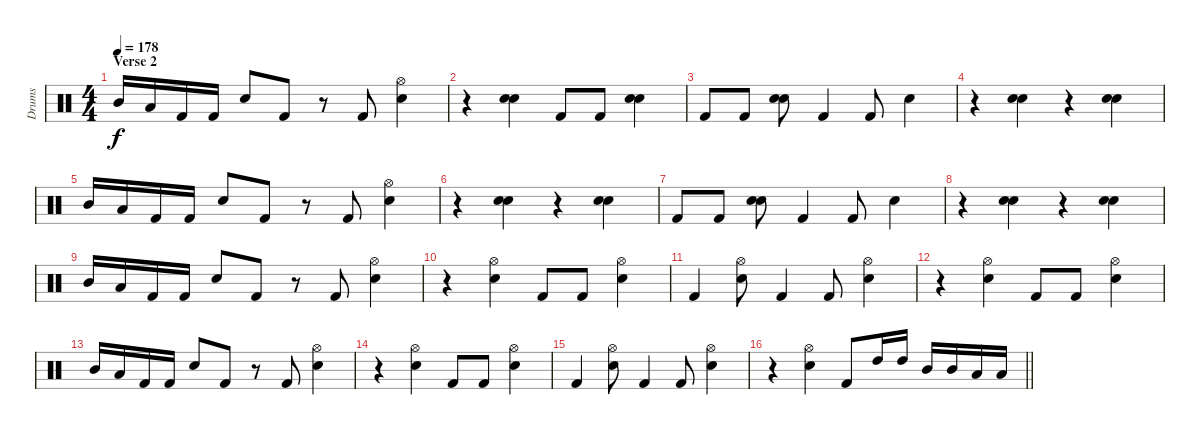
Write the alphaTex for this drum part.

\track ("Drums" "Drums") {instrument percussion}
\staff {score}
\articulation defaults
\ts (4 4)
\section ("" "Verse 2")
\tempo 178
\clef neutral
\ks c "Mid Tom (hit)".16{dy f} "Low Tom (hit)".16 "Kick (hit) 2".16 "Kick (hit) 2".16 "Electric Snare (hit)".8 "Kick (hit) 2".8
r.8 "Kick (hit) 2".8 ("Hi-Hat (open)" "Electric Snare (hit)").4 |
r.4 ("Electric Snare (hit)" "Electric Snare (hit)").4{bd 120} "Kick (hit) 2".8 "Kick (hit) 2".8 ("Electric Snare (hit)" "Electric Snare (hit)").4{bd 120} |
"Kick (hit) 2".8 "Kick (hit) 2".8 ("Electric Snare (hit)" "Electric Snare (hit)").8{bd 120} "Kick (hit) 2".4 "Kick (hit) 2".8 "Electric Snare (hit)".4 |
r.4 ("Electric Snare (hit)" "Electric Snare (hit)").4{bd 120} r.4 ("Electric Snare (hit)" "Electric Snare (hit)").4{bd 120} |
"Mid Tom (hit)".16 "Low Tom (hit)".16 "Kick (hit) 2".16 "Kick (hit) 2".16 "Electric Snare (hit)".8 "Kick (hit) 2".8 r.8 "Kick (hit) 2".8 ("Hi-Hat (open)" "Electric Snare (hit)").4 |
r.4 ("Electric Snare (hit)" "Electric Snare (hit)").4{bd 120} r.4 ("Electric Snare (hit)" "Electric Snare (hit)").4{bd 120} |
"Kick (hit) 2".8 "Kick (hit) 2".8 ("Electric Snare (hit)" "Electric Snare (hit)").8{bd 120} "Kick (hit) 2".4 "Kick (hit) 2".8 "Electric Snare (hit)".4 |
r.4 ("Electric Snare (hit)" "Electric Snare (hit)").4{bd 120} r.4 ("Electric Snare (hit)" "Electric Snare (hit)").4{bd 120} |
"Mid Tom (hit)".16 "Low Tom (hit)".16 "Kick (hit) 2".16 "Kick (hit) 2".16 "Electric Snare (hit)".8 "Kick (hit) 2".8 r.8 "Kick (hit) 2".8 ("Hi-Hat (open)" "Electric Snare (hit)").4 |
r.4 ("Hi-Hat (open)" "Electric Snare (hit)").4 "Kick (hit) 2".8 "Kick (hit) 2".8 ("Hi-Hat (open)" "Electric Snare (hit)").4 |
"Kick (hit) 2".4 ("Hi-Hat (open)" "Electric Snare (hit)").8 "Kick (hit) 2".4 "Kick (hit) 2".8 ("Hi-Hat (open)" "Electric Snare (hit)").4 |
r.4 ("Hi-Hat (open)" "Electric Snare (hit)").4 "Kick (hit) 2".8 "Kick (hit) 2".8 ("Hi-Hat (open)" "Electric Snare (hit)").4 |
"Mid Tom (hit)".16 "Low Tom (hit)".16 "Kick (hit) 2".16 "Kick (hit) 2".16 "Electric Snare (hit)".8 "Kick (hit) 2".8 r.8 "Kick (hit) 2".8 ("Hi-Hat (open)" "Electric Snare (hit)").4 |
r.4 ("Hi-Hat (open)" "Electric Snare (hit)").4 "Kick (hit) 2".8 "Kick (hit) 2".8 ("Hi-Hat (open)" "Electric Snare (hit)").4 |
"Kick (hit) 2".4 ("Hi-Hat (open)" "Electric Snare (hit)").8 "Kick (hit) 2".4 "Kick (hit) 2".8 ("Hi-Hat (open)" "Electric Snare (hit)").4 |
\barLineRight lightlight
r.4 ("Hi-Hat (open)" "Electric Snare (hit)").4 "Kick (hit) 2".8 "High Tom (hit)".16 "High Tom (hit)".16 "Mid Tom (hit)".16 "Mid Tom (hit)".16 "Low Tom (hit)".16 "Low Tom (hit)".16
